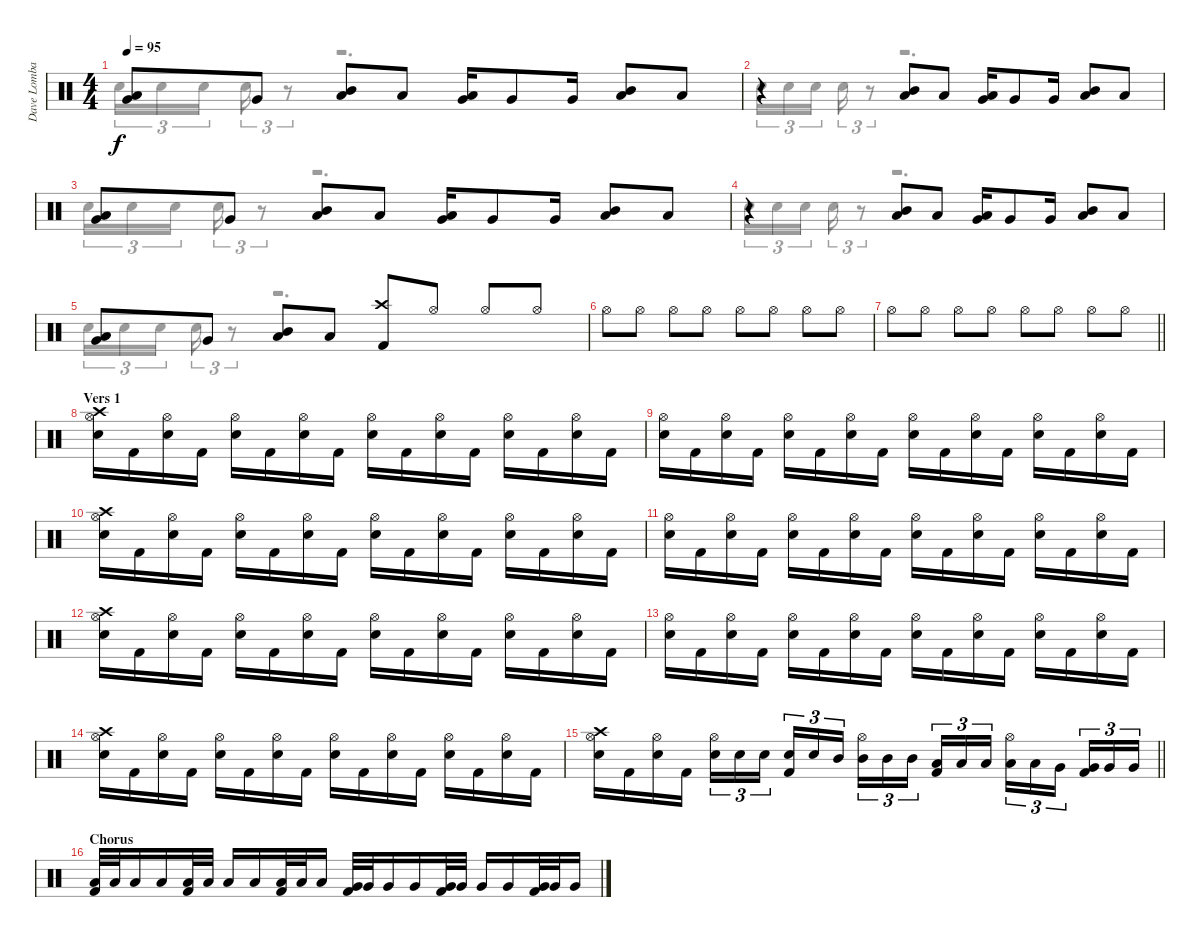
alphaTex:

\track ("Dave Lombardo" "Dave Lomba") {instrument percussion}
\staff {score}
\articulation defaults
\voice
\ts (4 4)
\tempo 95
\clef neutral
\ks c
("Low Tom (hit)" "Very Low Tom (hit)").8{dy f} "Very Low Tom (hit)".8 ("Mid Tom (hit)" "Low Tom (hit)").8 "Low Tom (hit)".8 ("Low Tom (hit)" "Very Low Tom (hit)").16 "Very Low Tom (hit)".8 "Very Low Tom (hit)".16 ("Mid Tom (hit)" "Low Tom (hit)").8 "Low Tom (hit)".8 |
r.4 ("Mid Tom (hit)" "Low Tom (hit)").8 "Low Tom (hit)".8 ("Low Tom (hit)" "Very Low Tom (hit)").16 "Very Low Tom (hit)".8 "Very Low Tom (hit)".16 ("Mid Tom (hit)" "Low Tom (hit)").8 "Low Tom (hit)".8 |
("Low Tom (hit)" "Very Low Tom (hit)").8 "Very Low Tom (hit)".8 ("Mid Tom (hit)" "Low Tom (hit)").8 "Low Tom (hit)".8 ("Low Tom (hit)" "Very Low Tom (hit)").16 "Very Low Tom (hit)".8 "Very Low Tom (hit)".16 ("Mid Tom (hit)" "Low Tom (hit)").8 "Low Tom (hit)".8 |
r.4 ("Mid Tom (hit)" "Low Tom (hit)").8 "Low Tom (hit)".8 ("Low Tom (hit)" "Very Low Tom (hit)").16 "Very Low Tom (hit)".8 "Very Low Tom (hit)".16 ("Mid Tom (hit)" "Low Tom (hit)").8 "Low Tom (hit)".8 |
("Low Tom (hit)" "Very Low Tom (hit)").8 "Very Low Tom (hit)".8 ("Mid Tom (hit)" "Low Tom (hit)").8 "Low Tom (hit)".8 ("Crash high (hit)" "Kick (hit) 2").8 "Hi-Hat (open)".8 "Hi-Hat (open)".8 "Hi-Hat (open)".8 |
"Hi-Hat (open)".8 "Hi-Hat (open)".8 "Hi-Hat (open)".8 "Hi-Hat (open)".8 "Hi-Hat (open)".8 "Hi-Hat (open)".8 "Hi-Hat (open)".8 "Hi-Hat (open)".8 |
\barLineRight lightlight "Hi-Hat (open)".8 "Hi-Hat (open)".8 "Hi-Hat (open)".8 "Hi-Hat (open)".8 "Hi-Hat (open)".8 "Hi-Hat (open)".8 "Hi-Hat (open)".8 "Hi-Hat (open)".8
|
\section ("" "Vers 1")
("Crash high (hit)" "Hi-Hat (open)" "Snare (hit) 2").16 "Kick (hit) 2".16 ("Hi-Hat (open)" "Snare (hit) 2").16 "Kick (hit) 2".16 ("Hi-Hat (open)" "Snare (hit) 2").16 "Kick (hit) 2".16 ("Hi-Hat (open)" "Snare (hit) 2").16 "Kick (hit) 2".16 ("Hi-Hat (open)" "Snare (hit) 2").16 "Kick (hit) 2".16 ("Hi-Hat (open)" "Snare (hit) 2").16 "Kick (hit) 2".16 ("Hi-Hat (open)" "Snare (hit) 2").16 "Kick (hit) 2".16 ("Hi-Hat (open)" "Snare (hit) 2").16 "Kick (hit) 2".16 |
("Hi-Hat (open)" "Snare (hit) 2").16 "Kick (hit) 2".16 ("Hi-Hat (open)" "Snare (hit) 2").16 "Kick (hit) 2".16 ("Hi-Hat (open)" "Snare (hit) 2").16 "Kick (hit) 2".16 ("Hi-Hat (open)" "Snare (hit) 2").16 "Kick (hit) 2".16 ("Hi-Hat (open)" "Snare (hit) 2").16 "Kick (hit) 2".16 ("Hi-Hat (open)" "Snare (hit) 2").16 "Kick (hit) 2".16 ("Hi-Hat (open)" "Snare (hit) 2").16 "Kick (hit) 2".16 ("Hi-Hat (open)" "Snare (hit) 2").16 "Kick (hit) 2".16 |
("Crash high (hit)" "Hi-Hat (open)" "Snare (hit) 2").16 "Kick (hit) 2".16 ("Hi-Hat (open)" "Snare (hit) 2").16 "Kick (hit) 2".16 ("Hi-Hat (open)" "Snare (hit) 2").16 "Kick (hit) 2".16 ("Hi-Hat (open)" "Snare (hit) 2").16 "Kick (hit) 2".16 ("Hi-Hat (open)" "Snare (hit) 2").16 "Kick (hit) 2".16 ("Hi-Hat (open)" "Snare (hit) 2").16 "Kick (hit) 2".16 ("Hi-Hat (open)" "Snare (hit) 2").16 "Kick (hit) 2".16 ("Hi-Hat (open)" "Snare (hit) 2").16 "Kick (hit) 2".16 |
("Hi-Hat (open)" "Snare (hit) 2").16 "Kick (hit) 2".16 ("Hi-Hat (open)" "Snare (hit) 2").16 "Kick (hit) 2".16 ("Hi-Hat (open)" "Snare (hit) 2").16 "Kick (hit) 2".16 ("Hi-Hat (open)" "Snare (hit) 2").16 "Kick (hit) 2".16 ("Hi-Hat (open)" "Snare (hit) 2").16 "Kick (hit) 2".16 ("Hi-Hat (open)" "Snare (hit) 2").16 "Kick (hit) 2".16 ("Hi-Hat (open)" "Snare (hit) 2").16 "Kick (hit) 2".16 ("Hi-Hat (open)" "Snare (hit) 2").16 "Kick (hit) 2".16 |
("Crash high (hit)" "Hi-Hat (open)" "Snare (hit) 2").16 "Kick (hit) 2".16 ("Hi-Hat (open)" "Snare (hit) 2").16 "Kick (hit) 2".16 ("Hi-Hat (open)" "Snare (hit) 2").16 "Kick (hit) 2".16 ("Hi-Hat (open)" "Snare (hit) 2").16 "Kick (hit) 2".16 ("Hi-Hat (open)" "Snare (hit) 2").16 "Kick (hit) 2".16 ("Hi-Hat (open)" "Snare (hit) 2").16 "Kick (hit) 2".16 ("Hi-Hat (open)" "Snare (hit) 2").16 "Kick (hit) 2".16 ("Hi-Hat (open)" "Snare (hit) 2").16 "Kick (hit) 2".16 |
("Hi-Hat (open)" "Snare (hit) 2").16 "Kick (hit) 2".16 ("Hi-Hat (open)" "Snare (hit) 2").16 "Kick (hit) 2".16 ("Hi-Hat (open)" "Snare (hit) 2").16 "Kick (hit) 2".16 ("Hi-Hat (open)" "Snare (hit) 2").16 "Kick (hit) 2".16 ("Hi-Hat (open)" "Snare (hit) 2").16 "Kick (hit) 2".16 ("Hi-Hat (open)" "Snare (hit) 2").16 "Kick (hit) 2".16 ("Hi-Hat (open)" "Snare (hit) 2").16 "Kick (hit) 2".16 ("Hi-Hat (open)" "Snare (hit) 2").16 "Kick (hit) 2".16 |
("Crash high (hit)" "Hi-Hat (open)" "Snare (hit) 2").16 "Kick (hit) 2".16 ("Hi-Hat (open)" "Snare (hit) 2").16 "Kick (hit) 2".16 ("Hi-Hat (open)" "Snare (hit) 2").16 "Kick (hit) 2".16 ("Hi-Hat (open)" "Snare (hit) 2").16 "Kick (hit) 2".16 ("Hi-Hat (open)" "Snare (hit) 2").16 "Kick (hit) 2".16 ("Hi-Hat (open)" "Snare (hit) 2").16 "Kick (hit) 2".16 ("Hi-Hat (open)" "Snare (hit) 2").16 "Kick (hit) 2".16 ("Hi-Hat (open)" "Snare (hit) 2").16 "Kick (hit) 2".16 |
\barLineRight lightlight
("Crash high (hit)" "Hi-Hat (open)" "Snare (hit) 2").16 "Kick (hit) 2".16 ("Hi-Hat (open)" "Snare (hit) 2").16 "Kick (hit) 2".16 ("Hi-Hat (open)" "Snare (hit) 2").16{tu (3 2)} "Snare (hit) 2".16{tu (3 2)} "Snare (hit) 2".16{tu (3 2) beam splitsecondary} ("Snare (hit) 2" "Kick (hit) 2").16{tu (3 2)} "Snare (hit) 2".16{tu (3 2)} "Mid Tom (hit)".16{tu (3 2)} ("Hi-Hat (open)" "Mid Tom (hit)").16{tu (3 2)} "Mid Tom (hit)".16{tu (3 2)} "Mid Tom (hit)".16{tu (3 2) beam splitsecondary} ("Low Tom (hit)" "Kick (hit) 2").16{tu (3 2)} "Low Tom (hit)".16{tu (3 2)} "Low Tom (hit)".16{tu (3 2)} ("Hi-Hat (open)" "Low Tom (hit)").16{tu (3 2)} "Low Tom (hit)".16{tu (3 2)} "Very Low Tom (hit)".16{tu (3 2) beam splitsecondary} ("Very Low Tom (hit)" "Kick (hit) 2").16{tu (3 2)} "Very Low Tom (hit)".16{tu (3 2)} "Very Low Tom (hit)".16{tu (3 2)} |
\section ("" "Chorus")
("Low Tom (hit)" "Kick (hit) 2").32 "Low Tom (hit)".32 "Low Tom (hit)".16 "Low Tom (hit)".16 ("Low Tom (hit)" "Kick (hit) 2").32 "Low Tom (hit)".32 "Low Tom (hit)".16 "Low Tom (hit)".16 ("Low Tom (hit)" "Kick (hit) 2").32 "Low Tom (hit)".32 "Low Tom (hit)".16 ("Very Low Tom (hit)" "Kick (hit) 2").32 "Very Low Tom (hit)".32 "Very Low Tom (hit)".16 "Very Low Tom (hit)".16 ("Very Low Tom (hit)" "Kick (hit) 2").32 "Very Low Tom (hit)".32 "Very Low Tom (hit)".16 "Very Low Tom (hit)".16 ("Very Low Tom (hit)" "Kick (hit) 2").32 "Very Low Tom (hit)".32 "Very Low Tom (hit)".16
\voice
\clef neutral
\ottava regular
\simile none
\ks c "Snare (hit) 2".16{tu (3 2) dy f} "Snare (hit) 2".16{tu (3 2)} "Snare (hit) 2".16{tu (3 2) beam splitsecondary} "Snare (hit) 2".16{tu (3 2)}
r.8{tu (3 2)} r.2{d} |
"Snare (hit) 2".16{tu (3 2)} "Snare (hit) 2".16{tu (3 2)} "Snare (hit) 2".16{tu (3 2) beam splitsecondary} "Snare (hit) 2".16{tu (3 2)} r.8{tu (3 2)} r.2{d} |
"Snare (hit) 2".16{tu (3 2)} "Snare (hit) 2".16{tu (3 2)} "Snare (hit) 2".16{tu (3 2) beam splitsecondary} "Snare (hit) 2".16{tu (3 2)} r.8{tu (3 2)} r.2{d} |
"Snare (hit) 2".16{tu (3 2)} "Snare (hit) 2".16{tu (3 2)} "Snare (hit) 2".16{tu (3 2) beam splitsecondary} "Snare (hit) 2".16{tu (3 2)} r.8{tu (3 2)} r.2{d} |
"Snare (hit) 2".16{tu (3 2)} "Snare (hit) 2".16{tu (3 2)} "Snare (hit) 2".16{tu (3 2) beam splitsecondary} "Snare (hit) 2".16{tu (3 2)} r.8{tu (3 2)} r.2{d} |
|
\barLineRight lightlight
|
|
|
|
|
|
|
|
\barLineRight lightlight
|
